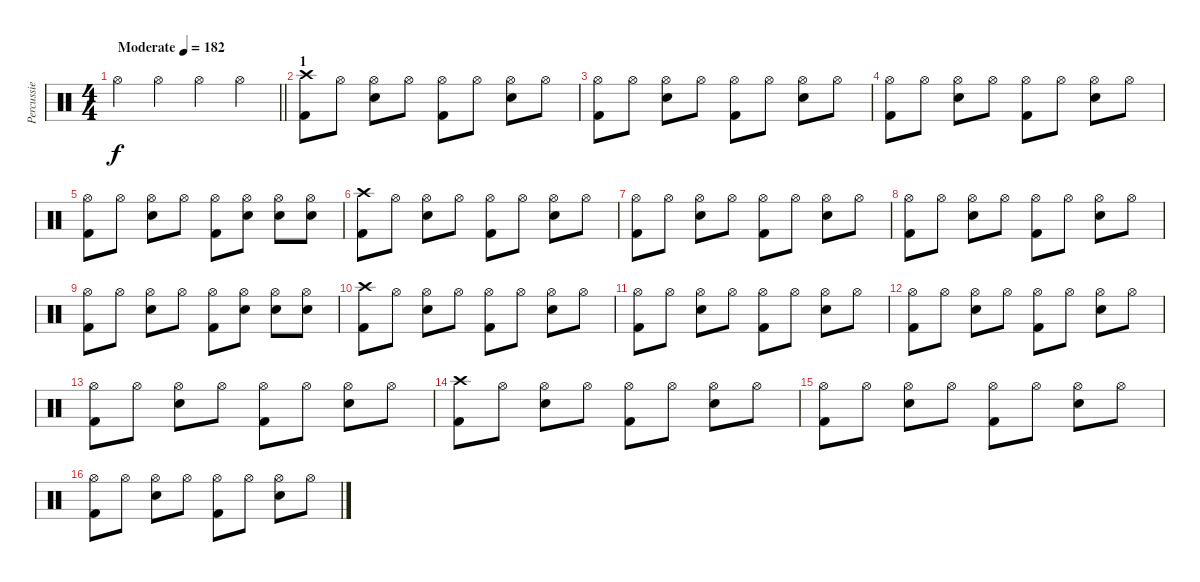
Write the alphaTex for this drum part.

\track ("Percussie" "Percussie") {instrument percussion}
\staff {score}
\articulation defaults
\ts (4 4)
\tempo (182 "Moderate")
\clef neutral
\barLineRight lightlight
\ks c "Hi-Hat (open)".4{dy f} "Hi-Hat (open)".4 "Hi-Hat (open)".4 "Hi-Hat (open)".4
|
\section ("" "1")
("Crash high (hit)" "Kick (hit) 2").8 "Hi-Hat (open)".8 ("Hi-Hat (open)" "Snare (hit) 2").8 "Hi-Hat (open)".8 ("Hi-Hat (open)" "Kick (hit) 2").8 "Hi-Hat (open)".8 ("Hi-Hat (open)" "Snare (hit) 2").8 "Hi-Hat (open)".8 |
("Hi-Hat (open)" "Kick (hit) 2").8 "Hi-Hat (open)".8 ("Hi-Hat (open)" "Snare (hit) 2").8 "Hi-Hat (open)".8 ("Hi-Hat (open)" "Kick (hit) 2").8 "Hi-Hat (open)".8 ("Hi-Hat (open)" "Snare (hit) 2").8 "Hi-Hat (open)".8 |
("Hi-Hat (open)" "Kick (hit) 2").8 "Hi-Hat (open)".8 ("Hi-Hat (open)" "Snare (hit) 2").8 "Hi-Hat (open)".8 ("Hi-Hat (open)" "Kick (hit) 2").8 "Hi-Hat (open)".8 ("Hi-Hat (open)" "Snare (hit) 2").8 "Hi-Hat (open)".8 |
("Hi-Hat (open)" "Kick (hit) 2").8 "Hi-Hat (open)".8 ("Hi-Hat (open)" "Snare (hit) 2").8 "Hi-Hat (open)".8 ("Hi-Hat (open)" "Kick (hit) 2").8 ("Hi-Hat (open)" "Snare (hit) 2").8 ("Hi-Hat (open)" "Snare (hit) 2").8 ("Hi-Hat (open)" "Snare (hit) 2").8 |
("Crash high (hit)" "Kick (hit) 2").8 "Hi-Hat (open)".8 ("Hi-Hat (open)" "Snare (hit) 2").8 "Hi-Hat (open)".8 ("Hi-Hat (open)" "Kick (hit) 2").8 "Hi-Hat (open)".8 ("Hi-Hat (open)" "Snare (hit) 2").8 "Hi-Hat (open)".8 |
("Hi-Hat (open)" "Kick (hit) 2").8 "Hi-Hat (open)".8 ("Hi-Hat (open)" "Snare (hit) 2").8 "Hi-Hat (open)".8 ("Hi-Hat (open)" "Kick (hit) 2").8 "Hi-Hat (open)".8 ("Hi-Hat (open)" "Snare (hit) 2").8 "Hi-Hat (open)".8 |
("Hi-Hat (open)" "Kick (hit) 2").8 "Hi-Hat (open)".8 ("Hi-Hat (open)" "Snare (hit) 2").8 "Hi-Hat (open)".8 ("Hi-Hat (open)" "Kick (hit) 2").8 "Hi-Hat (open)".8 ("Hi-Hat (open)" "Snare (hit) 2").8 "Hi-Hat (open)".8 |
("Hi-Hat (open)" "Kick (hit) 2").8 "Hi-Hat (open)".8 ("Hi-Hat (open)" "Snare (hit) 2").8 "Hi-Hat (open)".8 ("Hi-Hat (open)" "Kick (hit) 2").8 ("Hi-Hat (open)" "Snare (hit) 2").8 ("Hi-Hat (open)" "Snare (hit) 2").8 ("Hi-Hat (open)" "Snare (hit) 2").8 |
("Crash high (hit)" "Kick (hit) 2").8 "Hi-Hat (open)".8 ("Hi-Hat (open)" "Snare (hit) 2").8 "Hi-Hat (open)".8 ("Hi-Hat (open)" "Kick (hit) 2").8 "Hi-Hat (open)".8 ("Hi-Hat (open)" "Snare (hit) 2").8 "Hi-Hat (open)".8 |
("Hi-Hat (open)" "Kick (hit) 2").8 "Hi-Hat (open)".8 ("Hi-Hat (open)" "Snare (hit) 2").8 "Hi-Hat (open)".8 ("Hi-Hat (open)" "Kick (hit) 2").8 "Hi-Hat (open)".8 ("Hi-Hat (open)" "Snare (hit) 2").8 "Hi-Hat (open)".8 |
("Hi-Hat (open)" "Kick (hit) 2").8 "Hi-Hat (open)".8 ("Hi-Hat (open)" "Snare (hit) 2").8 "Hi-Hat (open)".8 ("Hi-Hat (open)" "Kick (hit) 2").8 "Hi-Hat (open)".8 ("Hi-Hat (open)" "Snare (hit) 2").8 "Hi-Hat (open)".8 |
("Hi-Hat (open)" "Kick (hit) 2").8 "Hi-Hat (open)".8 ("Hi-Hat (open)" "Snare (hit) 2").8 "Hi-Hat (open)".8 ("Hi-Hat (open)" "Kick (hit) 2").8 "Hi-Hat (open)".8 ("Hi-Hat (open)" "Snare (hit) 2").8 "Hi-Hat (open)".8 |
("Crash high (hit)" "Kick (hit) 2").8 "Hi-Hat (open)".8 ("Hi-Hat (open)" "Snare (hit) 2").8 "Hi-Hat (open)".8 ("Hi-Hat (open)" "Kick (hit) 2").8 "Hi-Hat (open)".8 ("Hi-Hat (open)" "Snare (hit) 2").8 "Hi-Hat (open)".8 |
("Hi-Hat (open)" "Kick (hit) 2").8 "Hi-Hat (open)".8 ("Hi-Hat (open)" "Snare (hit) 2").8 "Hi-Hat (open)".8 ("Hi-Hat (open)" "Kick (hit) 2").8 "Hi-Hat (open)".8 ("Hi-Hat (open)" "Snare (hit) 2").8 "Hi-Hat (open)".8 |
("Hi-Hat (open)" "Kick (hit) 2").8 "Hi-Hat (open)".8 ("Hi-Hat (open)" "Snare (hit) 2").8 "Hi-Hat (open)".8 ("Hi-Hat (open)" "Kick (hit) 2").8 "Hi-Hat (open)".8 ("Hi-Hat (open)" "Snare (hit) 2").8 "Hi-Hat (open)".8
